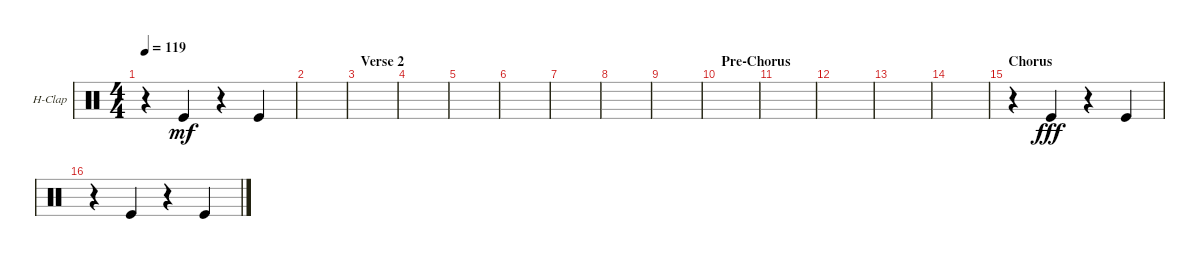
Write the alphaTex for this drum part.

\defaultSystemsLayout 4
\bracketExtendMode groupsimilarinstruments
\firstSystemTrackNameOrientation horizontal
\otherSystemsTrackNameOrientation horizontal
\track ("Hand Clap" "H-Clap") {instrument percussion}
\staff {score}
\articulation defaults
\ts (4 4)
\tempo 119
\clef neutral
\scale
0.333333
\ks c
r.4{dy fff} "Kick (hit)".4{dy mf} r.4 "Kick (hit)".4 |
\scale
0.333333 |
\section ("" "Verse 2")
\scale
0.333333 |
\scale
0.333333 |
\scale
0.333333 |
\scale
0.333333 |
\scale
0.333333 |
\scale
0.333333 |
\scale
0.333333 |
\section ("" "Pre-Chorus")
\scale
0.333333 |
\scale
0.333333 |
\scale
0.333333 |
\scale
0.333333 |
\scale
0.333333 |
\section ("" "Chorus")
\scale
0.333333 r.4 "Kick (hit)".4{dy fff} r.4 "Kick (hit)".4 |
\scale
0.333333 r.4 "Kick (hit)".4 r.4 "Kick (hit)".4
